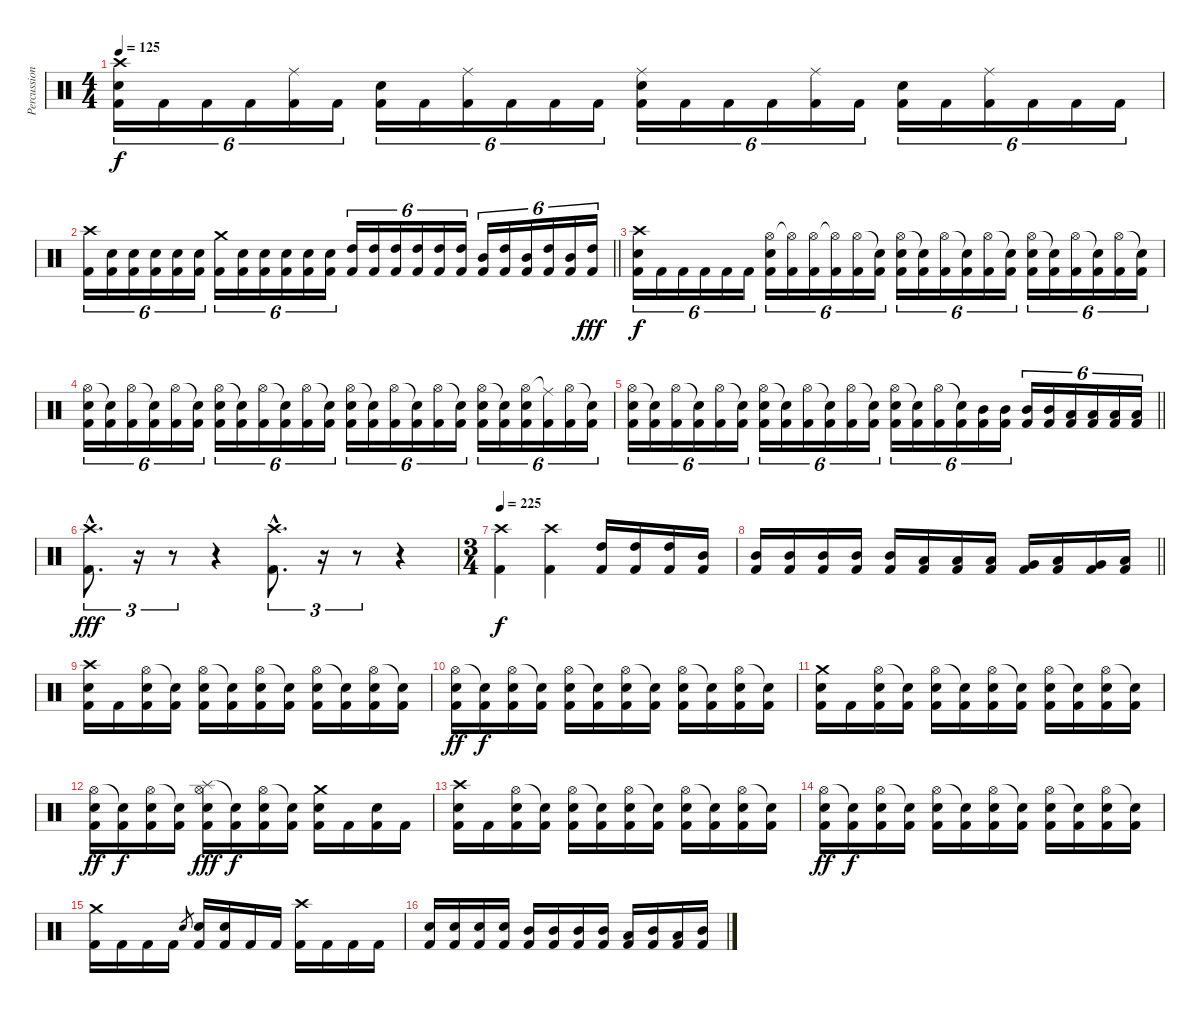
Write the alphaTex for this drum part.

\track ("Percussion" "Percussion") {instrument percussion}
\staff {score}
\articulation defaults
\ts (4 4)
\tempo 125
\clef neutral
\ks c
("Crash high (hit)" "Snare (hit) 2" "Kick (hit) 2").16{tu (6 4) dy f} "Kick (hit) 2".16{tu (6 4)} "Kick (hit) 2".16{tu (6 4)} "Kick (hit) 2".16{tu (6 4)} ("Ride (middle)" "Kick (hit) 2").16{tu (6 4)} "Kick (hit) 2".16{tu (6 4)} ("Snare (hit) 2" "Kick (hit) 2").16{tu (6 4)} "Kick (hit) 2".16{tu (6 4)} ("Ride (middle)" "Kick (hit) 2").16{tu (6 4)} "Kick (hit) 2".16{tu (6 4)} "Kick (hit) 2".16{tu (6 4)} "Kick (hit) 2".16{tu (6 4)} ("Ride (middle)" "Snare (hit) 2" "Kick (hit) 2").16{tu (6 4)} "Kick (hit) 2".16{tu (6 4)} "Kick (hit) 2".16{tu (6 4)} "Kick (hit) 2".16{tu (6 4)} ("Ride (middle)" "Kick (hit) 2").16{tu (6 4)} "Kick (hit) 2".16{tu (6 4)} ("Snare (hit) 2" "Kick (hit) 2").16{tu (6 4)} "Kick (hit) 2".16{tu (6 4)} ("Ride (middle)" "Kick (hit) 2").16{tu (6 4)} "Kick (hit) 2".16{tu (6 4)} "Kick (hit) 2".16{tu (6 4)} "Kick (hit) 2".16{tu (6 4)} |
\barLineRight lightlight
("Crash high (hit)" "Kick (hit) 2").16{tu (6 4)} ("Snare (hit) 2" "Kick (hit) 2").16{tu (6 4)} ("Snare (hit) 2" "Kick (hit) 2").16{tu (6 4)} ("Snare (hit) 2" "Kick (hit) 2").16{tu (6 4)} ("Snare (hit) 2" "Kick (hit) 2").16{tu (6 4)} ("Snare (hit) 2" "Kick (hit) 2").16{tu (6 4)} ("Crash medium (hit)" "Kick (hit) 2").16{tu (6 4)} ("Snare (hit) 2" "Kick (hit) 2").16{tu (6 4)} ("Snare (hit) 2" "Kick (hit) 2").16{tu (6 4)} ("Snare (hit) 2" "Kick (hit) 2").16{tu (6 4)} ("Snare (hit) 2" "Kick (hit) 2").16{tu (6 4)} ("Snare (hit) 2" "Kick (hit) 2").16{tu (6 4)} ("High Tom (hit)" "Kick (hit) 2").16{tu (6 4)} ("High Tom (hit)" "Kick (hit) 2").16{tu (6 4)} ("High Tom (hit)" "Kick (hit) 2").16{tu (6 4)} ("High Tom (hit)" "Kick (hit) 2").16{tu (6 4)} ("High Tom (hit)" "Kick (hit) 2").16{tu (6 4)} ("High Tom (hit)" "Kick (hit) 2").16{tu (6 4)} ("Mid Tom (hit)" "Kick (hit) 2").16{tu (6 4)} ("High Tom (hit)" "Kick (hit) 2").16{tu (6 4)} ("Mid Tom (hit)" "Kick (hit) 2").16{tu (6 4)} ("High Tom (hit)" "Kick (hit) 2").16{tu (6 4)} ("Mid Tom (hit)" "Kick (hit) 2").16{tu (6 4)} ("High Tom (hit)" "Kick (hit) 2").16{tu (6 4) dy fff} |
("Crash high (hit)" "Snare (hit) 2" "Kick (hit) 2").16{tu (6 4) dy f} "Kick (hit) 2".16{tu (6 4)} "Kick (hit) 2".16{tu (6 4)} "Kick (hit) 2".16{tu (6 4)} "Kick (hit) 2".16{tu (6 4)} "Kick (hit) 2".16{tu (6 4)} ("Hi-Hat (open)" "Snare (hit) 2" "Kick (hit) 2").16{tu (6 4)} ("Hi-Hat (open)"{t} "Kick (hit) 2").16{tu (6 4)} ("Hi-Hat (open)" "Kick (hit) 2").16{tu (6 4)} ("Hi-Hat (open)"{t} "Kick (hit) 2").16{tu (6 4)} ("Hi-Hat (open)" "Kick (hit) 2").16{tu (6 4)} ("Snare (hit)"{t} "Kick (hit) 2").16{tu (6 4)} ("Hi-Hat (open)" "Snare (hit) 2" "Kick (hit) 2").16{tu (6 4)} ("Snare (hit)"{t} "Kick (hit) 2").16{tu (6 4)} ("Hi-Hat (open)" "Kick (hit) 2").16{tu (6 4)} ("Snare (hit)"{t} "Kick (hit) 2").16{tu (6 4)} ("Hi-Hat (open)" "Kick (hit) 2").16{tu (6 4)} ("Snare (hit)"{t} "Kick (hit) 2").16{tu (6 4)} ("Hi-Hat (open)" "Snare (hit) 2" "Kick (hit) 2").16{tu (6 4)} ("Snare (hit)"{t} "Kick (hit) 2").16{tu (6 4)} ("Hi-Hat (open)" "Kick (hit) 2").16{tu (6 4)} ("Snare (hit)"{t} "Kick (hit) 2").16{tu (6 4)} ("Hi-Hat (open)" "Kick (hit) 2").16{tu (6 4)} ("Snare (hit)"{t} "Kick (hit) 2").16{tu (6 4)} |
("Hi-Hat (open)" "Snare (hit) 2" "Kick (hit) 2").16{tu (6 4)} ("Snare (hit)"{t} "Kick (hit) 2").16{tu (6 4)} ("Hi-Hat (open)" "Kick (hit) 2").16{tu (6 4)} ("Snare (hit)"{t} "Kick (hit) 2").16{tu (6 4)} ("Hi-Hat (open)" "Kick (hit) 2").16{tu (6 4)} ("Snare (hit)"{t} "Kick (hit) 2").16{tu (6 4)} ("Hi-Hat (open)" "Snare (hit) 2" "Kick (hit) 2").16{tu (6 4)} ("Snare (hit)"{t} "Kick (hit) 2").16{tu (6 4)} ("Hi-Hat (open)" "Kick (hit) 2").16{tu (6 4)} ("Snare (hit)"{t} "Kick (hit) 2").16{tu (6 4)} ("Hi-Hat (open)" "Kick (hit) 2").16{tu (6 4)} ("Snare (hit)"{t} "Kick (hit) 2").16{tu (6 4)} ("Hi-Hat (open)" "Snare (hit) 2" "Kick (hit) 2").16{tu (6 4)} ("Snare (hit)"{t} "Kick (hit) 2").16{tu (6 4)} ("Hi-Hat (open)" "Kick (hit) 2").16{tu (6 4)} ("Snare (hit)"{t} "Kick (hit) 2").16{tu (6 4)} ("Hi-Hat (open)" "Kick (hit) 2").16{tu (6 4)} ("Snare (hit)"{t} "Kick (hit) 2").16{tu (6 4)} ("Hi-Hat (open)" "Snare (hit) 2" "Kick (hit) 2").16{tu (6 4)} ("Snare (hit)"{t} "Kick (hit) 2").16{tu (6 4)} ("Hi-Hat (open)" "Snare (hit) 2" "Kick (hit) 2").16{tu (6 4)} ("Ride (middle)"{t} "Kick (hit) 2").16{tu (6 4)} ("Hi-Hat (open)" "Kick (hit) 2").16{tu (6 4)} ("Snare (hit)"{t} "Kick (hit) 2").16{tu (6 4)} |
\barLineRight lightlight
("Hi-Hat (open)" "Snare (hit) 2" "Kick (hit) 2").16{tu (6 4)} ("Snare (hit)"{t} "Kick (hit) 2").16{tu (6 4)} ("Hi-Hat (open)" "Kick (hit) 2").16{tu (6 4)} ("Snare (hit)"{t} "Kick (hit) 2").16{tu (6 4)} ("Hi-Hat (open)" "Kick (hit) 2").16{tu (6 4)} ("Snare (hit)"{t} "Kick (hit) 2").16{tu (6 4)} ("Hi-Hat (open)" "Snare (hit) 2" "Kick (hit) 2").16{tu (6 4)} ("Snare (hit)"{t} "Kick (hit) 2").16{tu (6 4)} ("Hi-Hat (open)" "Kick (hit) 2").16{tu (6 4)} ("Snare (hit)"{t} "Kick (hit) 2").16{tu (6 4)} ("Hi-Hat (open)" "Kick (hit) 2").16{tu (6 4)} ("Snare (hit)"{t} "Kick (hit) 2").16{tu (6 4)} ("Hi-Hat (open)" "Snare (hit) 2" "Kick (hit) 2").16{tu (6 4)} ("Snare (hit)"{t} "Kick (hit) 2").16{tu (6 4)} ("Hi-Hat (open)" "Kick (hit) 2").16{tu (6 4)} ("Snare (hit)"{t} "Kick (hit) 2").16{tu (6 4)} ("Mid Tom (hit)" "Kick (hit) 2").16{tu (6 4)} ("Mid Tom (hit)" "Kick (hit) 2").16{tu (6 4)} ("Mid Tom (hit)" "Kick (hit) 2").16{tu (6 4)} ("Mid Tom (hit)" "Kick (hit) 2").16{tu (6 4)} ("Low Tom (hit)" "Kick (hit) 2").16{tu (6 4)} ("Low Tom (hit)" "Kick (hit) 2").16{tu (6 4)} ("Low Tom (hit)" "Kick (hit) 2").16{tu (6 4)} ("Low Tom (hit)" "Kick (hit) 2").16{tu (6 4)} |
("Crash high (hit)"{hac} "Kick (hit) 2"{hac}).8{d tu (3 2) dy fff} r.16{tu (3 2) volume 0} r.8{tu (3 2)} r.4 ("Crash high (hit)"{hac} "Kick (hit) 2"{hac}).8{d tu (3 2) volume 15} r.16{tu (3 2) volume 0} r.8{tu (3 2)} r.4 |
\ts (3 4)
\tempo 225
("Crash high (hit)" "Kick (hit) 2").4{dy f volume 15} ("Crash high (hit)" "Kick (hit) 2").4 ("High Tom (hit)" "Kick (hit) 2").16 ("High Tom (hit)" "Kick (hit) 2").16 ("High Tom (hit)" "Kick (hit) 2").16 ("Mid Tom (hit)" "Kick (hit) 2").16 |
\barLineRight lightlight
("Mid Tom (hit)" "Kick (hit) 2").16 ("Mid Tom (hit)" "Kick (hit) 2").16 ("Mid Tom (hit)" "Kick (hit) 2").16 ("Mid Tom (hit)" "Kick (hit) 2").16 ("Mid Tom (hit)" "Kick (hit) 2").16 ("Low Tom (hit)" "Kick (hit) 2").16 ("Low Tom (hit)" "Kick (hit) 2").16 ("Low Tom (hit)" "Kick (hit) 2").16 ("Very Low Tom (hit)" "Kick (hit) 2").16 ("Low Tom (hit)" "Kick (hit) 2").16 ("Very Low Tom (hit)" "Kick (hit) 2").16 ("Low Tom (hit)" "Kick (hit) 2").16 |
("Crash high (hit)" "Snare (hit) 2" "Kick (hit) 2").16 "Kick (hit) 2".16 ("Hi-Hat (open)" "Snare (hit) 2" "Kick (hit) 2").16 ("Snare (hit)"{t} "Kick (hit) 2").16 ("Hi-Hat (open)" "Snare (hit) 2" "Kick (hit) 2").16 ("Snare (hit)"{t} "Kick (hit) 2").16 ("Hi-Hat (open)" "Snare (hit) 2" "Kick (hit) 2").16 ("Snare (hit)"{t} "Kick (hit) 2").16 ("Hi-Hat (open)" "Snare (hit) 2" "Kick (hit) 2").16 ("Snare (hit)"{t} "Kick (hit) 2").16 ("Hi-Hat (open)" "Snare (hit) 2" "Kick (hit) 2").16 ("Snare (hit)"{t} "Kick (hit) 2").16 |
("Hi-Hat (open)" "Snare (hit) 2" "Kick (hit) 2").16{dy ff} ("Snare (hit)"{t} "Kick (hit) 2").16{dy f} ("Hi-Hat (open)" "Snare (hit) 2" "Kick (hit) 2").16 ("Snare (hit)"{t} "Kick (hit) 2").16 ("Hi-Hat (open)" "Snare (hit) 2" "Kick (hit) 2").16 ("Snare (hit)"{t} "Kick (hit) 2").16 ("Hi-Hat (open)" "Snare (hit) 2" "Kick (hit) 2").16 ("Snare (hit)"{t} "Kick (hit) 2").16 ("Hi-Hat (open)" "Snare (hit) 2" "Kick (hit) 2").16 ("Snare (hit)"{t} "Kick (hit) 2").16 ("Hi-Hat (open)" "Snare (hit) 2" "Kick (hit) 2").16 ("Snare (hit)"{t} "Kick (hit) 2").16 |
("Crash medium (hit)" "Snare (hit) 2" "Kick (hit) 2").16 "Kick (hit) 2".16 ("Hi-Hat (open)" "Snare (hit) 2" "Kick (hit) 2").16 ("Snare (hit)"{t} "Kick (hit) 2").16 ("Hi-Hat (open)" "Snare (hit) 2" "Kick (hit) 2").16 ("Snare (hit)"{t} "Kick (hit) 2").16 ("Hi-Hat (open)" "Snare (hit) 2" "Kick (hit) 2").16 ("Snare (hit)"{t} "Kick (hit) 2").16 ("Hi-Hat (open)" "Snare (hit) 2" "Kick (hit) 2").16 ("Snare (hit)"{t} "Kick (hit) 2").16 ("Hi-Hat (open)" "Snare (hit) 2" "Kick (hit) 2").16 ("Snare (hit)"{t} "Kick (hit) 2").16 |
("Hi-Hat (open)" "Snare (hit) 2" "Kick (hit) 2").16{dy ff} ("Snare (hit)"{t} "Kick (hit) 2").16{dy f} ("Hi-Hat (open)" "Snare (hit) 2" "Kick (hit) 2").16 ("Snare (hit)"{t} "Kick (hit) 2").16 ("Splash (hit)" "Hi-Hat (open)" "Snare (hit) 2" "Kick (hit) 2").16{dy fff} ("Snare (hit)"{t} "Kick (hit) 2").16{dy f} ("Hi-Hat (open)" "Snare (hit) 2" "Kick (hit) 2").16 ("Snare (hit)"{t} "Kick (hit) 2").16 ("Crash medium (hit)" "Snare (hit) 2" "Kick (hit) 2").16 "Kick (hit) 2".16 ("Snare (hit) 2" "Kick (hit) 2").16 "Kick (hit) 2".16 |
("Crash high (hit)" "Snare (hit) 2" "Kick (hit) 2").16 "Kick (hit) 2".16 ("Hi-Hat (open)" "Snare (hit) 2" "Kick (hit) 2").16 ("Snare (hit)"{t} "Kick (hit) 2").16 ("Hi-Hat (open)" "Snare (hit) 2" "Kick (hit) 2").16 ("Snare (hit)"{t} "Kick (hit) 2").16 ("Hi-Hat (open)" "Snare (hit) 2" "Kick (hit) 2").16 ("Snare (hit)"{t} "Kick (hit) 2").16 ("Hi-Hat (open)" "Snare (hit) 2" "Kick (hit) 2").16 ("Snare (hit)"{t} "Kick (hit) 2").16 ("Hi-Hat (open)" "Snare (hit) 2" "Kick (hit) 2").16 ("Snare (hit)"{t} "Kick (hit) 2").16 |
("Hi-Hat (open)" "Snare (hit) 2" "Kick (hit) 2").16{dy ff} ("Snare (hit)"{t} "Kick (hit) 2").16{dy f} ("Hi-Hat (open)" "Snare (hit) 2" "Kick (hit) 2").16 ("Snare (hit)"{t} "Kick (hit) 2").16 ("Hi-Hat (open)" "Snare (hit) 2" "Kick (hit) 2").16 ("Snare (hit)"{t} "Kick (hit) 2").16 ("Hi-Hat (open)" "Snare (hit) 2" "Kick (hit) 2").16 ("Snare (hit)"{t} "Kick (hit) 2").16 ("Hi-Hat (open)" "Snare (hit) 2" "Kick (hit) 2").16 ("Snare (hit)"{t} "Kick (hit) 2").16 ("Hi-Hat (open)" "Snare (hit) 2" "Kick (hit) 2").16 ("Snare (hit)"{t} "Kick (hit) 2").16 |
("Crash medium (hit)" "Kick (hit) 2").16 "Kick (hit) 2".16 "Kick (hit) 2".16 "Kick (hit) 2".16 "Snare (hit) 2".8{gr} ("Snare (hit) 2" "Kick (hit) 2").16 ("Snare (hit) 2" "Kick (hit) 2").16 "Kick (hit) 2".16 "Kick (hit) 2".16 ("Crash high (hit)" "Kick (hit) 2").16 "Kick (hit) 2".16 "Kick (hit) 2".16 "Kick (hit) 2".16 |
("Snare (hit) 2" "Kick (hit) 2").16 ("Snare (hit) 2" "Kick (hit) 2").16 ("Snare (hit) 2" "Kick (hit) 2").16 ("Snare (hit) 2" "Kick (hit) 2").16 ("Mid Tom (hit)" "Kick (hit) 2").16 ("Mid Tom (hit)" "Kick (hit) 2").16 ("Mid Tom (hit)" "Kick (hit) 2").16 ("Mid Tom (hit)" "Kick (hit) 2").16 ("Low Tom (hit)" "Kick (hit) 2").16 ("Mid Tom (hit)" "Kick (hit) 2").16 ("Low Tom (hit)" "Kick (hit) 2").16 ("Mid Tom (hit)" "Kick (hit) 2").16
